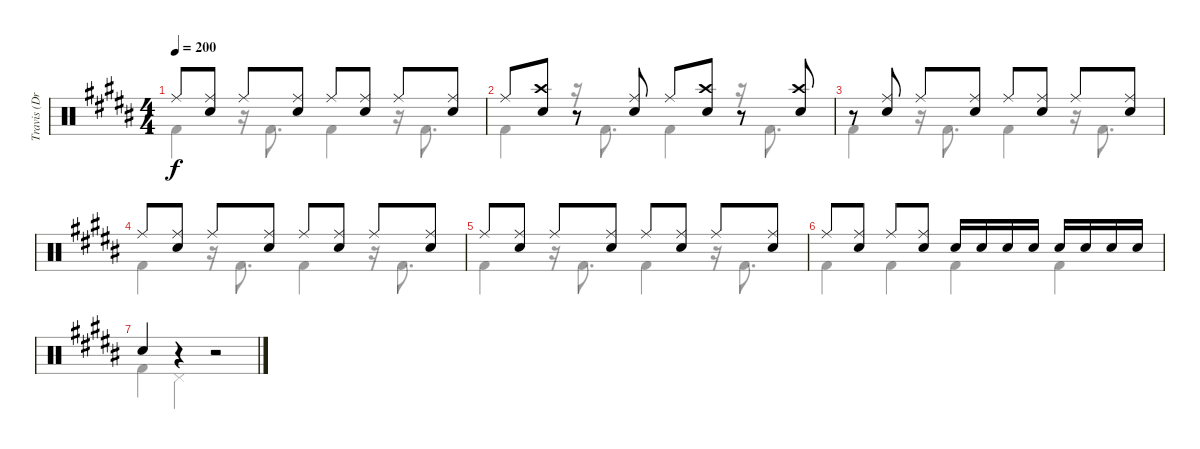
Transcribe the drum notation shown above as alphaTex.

\track ("Travis (Drums)" "Travis (Dr") {instrument percussion}
\staff {score}
\articulation defaults
\voice
\ts (4 4)
\tempo 200
\clef neutral
\ks b "Ride (middle)".8{dy f}
("Ride (middle)" "Electric Snare (hit)").8 "Ride (middle)".8 ("Ride (middle)" "Electric Snare (hit)").8 "Ride (middle)".8 ("Ride (middle)" "Electric Snare (hit)").8 "Ride (middle)".8 ("Ride (middle)" "Electric Snare (hit)").8 |
"Ride (middle)".8 ("Crash high (hit)" "Electric Snare (hit)").8 r.8 ("Ride (middle)" "Electric Snare (hit)").8 "Ride (middle)".8 ("Crash high (hit)" "Electric Snare (hit)").8 r.8 ("Crash high (hit)" "Electric Snare (hit)").8 |
r.8 ("Ride (middle)" "Electric Snare (hit)").8 "Ride (middle)".8 ("Ride (middle)" "Electric Snare (hit)").8 "Ride (middle)".8 ("Ride (middle)" "Electric Snare (hit)").8 "Ride (middle)".8 ("Ride (middle)" "Electric Snare (hit)").8 |
"Ride (middle)".8 ("Ride (middle)" "Electric Snare (hit)").8 "Ride (middle)".8 ("Ride (middle)" "Electric Snare (hit)").8 "Ride (middle)".8 ("Ride (middle)" "Electric Snare (hit)").8 "Ride (middle)".8 ("Ride (middle)" "Electric Snare (hit)").8 |
"Ride (middle)".8 ("Ride (middle)" "Electric Snare (hit)").8 "Ride (middle)".8 ("Ride (middle)" "Electric Snare (hit)").8 "Ride (middle)".8 ("Ride (middle)" "Electric Snare (hit)").8 "Ride (middle)".8 ("Ride (middle)" "Electric Snare (hit)").8 |
"Ride (middle)".8 ("Ride (middle)" "Electric Snare (hit)").8 "Ride (middle)".8 ("Ride (middle)" "Electric Snare (hit)").8 "Electric Snare (hit)".16 "Electric Snare (hit)".16 "Electric Snare (hit)".16 "Electric Snare (hit)".16 "Electric Snare (hit)".16 "Electric Snare (hit)".16 "Electric Snare (hit)".16 "Electric Snare (hit)".16 |
"Electric Snare (hit)".4 r.4 r.2
\voice
\clef neutral
\ottava regular
\simile none
\ks b "Kick (hit) 2".4{dy f}
r.16 "Kick (hit) 2".8{d} "Kick (hit) 2".4 r.16 "Kick (hit) 2".8{d} |
"Kick (hit) 2".4 r.16 "Kick (hit) 2".8{d} "Kick (hit) 2".4 r.16 "Kick (hit) 2".8{d} |
"Kick (hit) 2".4 r.16 "Kick (hit) 2".8{d} "Kick (hit) 2".4 r.16 "Kick (hit) 2".8{d} |
"Kick (hit) 2".4 r.16 "Kick (hit) 2".8{d} "Kick (hit) 2".4 r.16 "Kick (hit) 2".8{d} |
"Kick (hit) 2".4 r.16 "Kick (hit) 2".8{d} "Kick (hit) 2".4 r.16 "Kick (hit) 2".8{d} |
"Kick (hit) 2".4 "Kick (hit) 2".4 "Kick (hit) 2".4 "Kick (hit) 2".4 |
"Kick (hit) 2".4 "Pedal Hi-Hat (hit)".4 r.2
